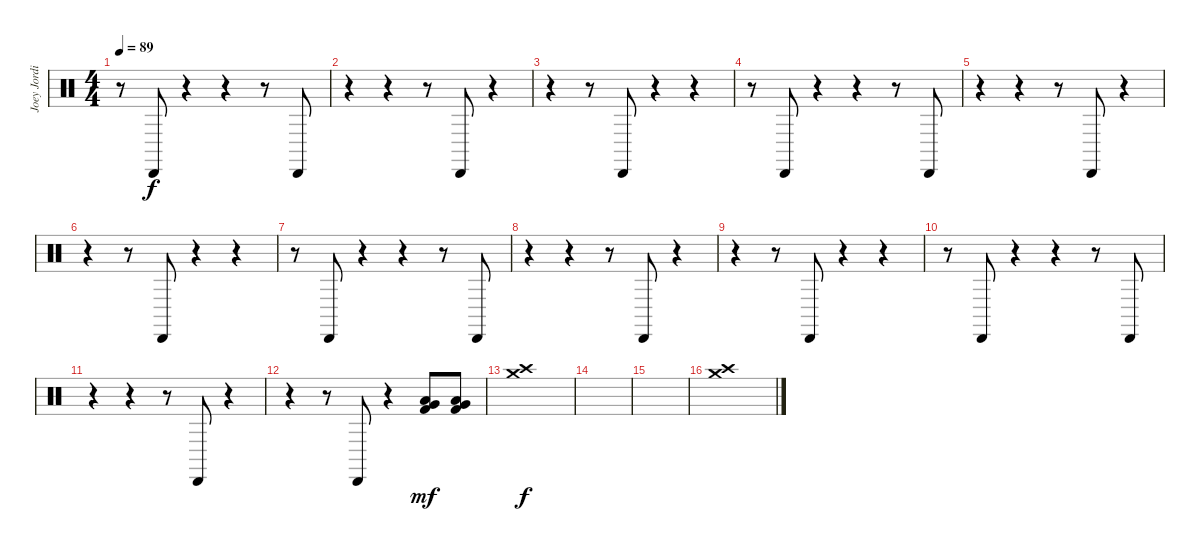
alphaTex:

\track ("Joey Jordison" "Joey Jordi") {instrument percussion}
\staff {score}
\articulation defaults
\ts (4 4)
\tempo 89
\clef neutral
\ks c
r.8{dy f} "Cabasa (hit)".8 r.4 r.4 r.8 "Cabasa (hit)".8 |
r.4 r.4 r.8 "Cabasa (hit)".8 r.4 |
r.4 r.8 "Cabasa (hit)".8 r.4 r.4 |
r.8 "Cabasa (hit)".8 r.4 r.4 r.8 "Cabasa (hit)".8 |
r.4 r.4 r.8 "Cabasa (hit)".8 r.4 |
r.4 r.8 "Cabasa (hit)".8 r.4 r.4 |
r.8 "Cabasa (hit)".8 r.4 r.4 r.8 "Cabasa (hit)".8 |
r.4 r.4 r.8 "Cabasa (hit)".8 r.4 |
r.4 r.8 "Cabasa (hit)".8 r.4 r.4 |
r.8 "Cabasa (hit)".8 r.4 r.4 r.8 "Cabasa (hit)".8 |
r.4 r.4 r.8 "Cabasa (hit)".8 r.4 |
r.4 r.8 "Cabasa (hit)".8 r.4 ("Very Low Tom (hit)" "Low Floor Tom (hit)" "Kick (hit) 2").8{dy mf} ("Very Low Tom (hit)" "Low Floor Tom (hit)" "Kick (hit) 2").8 |
("Crash high (hit)" "Crash medium (hit)").1{dy f} |
|
|
("Crash high (hit)" "Crash medium (hit)").1
